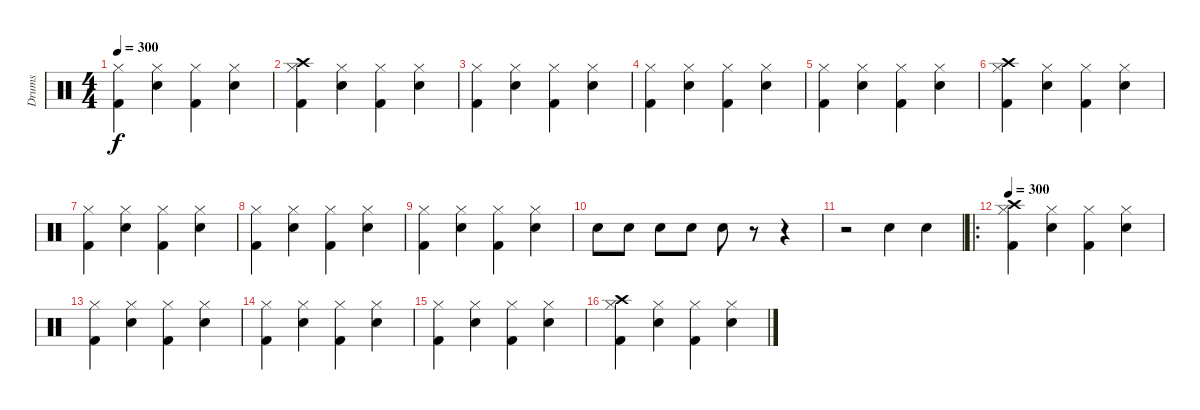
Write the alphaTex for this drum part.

\track ("Drums" "Drums") {instrument percussion}
\staff {score}
\articulation defaults
\ts (4 4)
\tempo 300
\clef neutral
\ks c
("Hi-Hat (closed)" "Kick (hit) 2").4{dy f} ("Hi-Hat (closed)" "Snare (hit) 2").4 ("Hi-Hat (closed)" "Kick (hit) 2").4 ("Hi-Hat (closed)" "Snare (hit) 2").4 |
("Hi-Hat (closed)" "Kick (hit) 2" "Crash high (hit)").4 ("Hi-Hat (closed)" "Snare (hit) 2").4 ("Hi-Hat (closed)" "Kick (hit) 2").4 ("Hi-Hat (closed)" "Snare (hit) 2").4 |
("Hi-Hat (closed)" "Kick (hit) 2").4 ("Hi-Hat (closed)" "Snare (hit) 2").4 ("Hi-Hat (closed)" "Kick (hit) 2").4 ("Hi-Hat (closed)" "Snare (hit) 2").4 |
("Hi-Hat (closed)" "Kick (hit) 2").4 ("Hi-Hat (closed)" "Snare (hit) 2").4 ("Hi-Hat (closed)" "Kick (hit) 2").4 ("Hi-Hat (closed)" "Snare (hit) 2").4 |
("Hi-Hat (closed)" "Kick (hit) 2").4 ("Hi-Hat (closed)" "Snare (hit) 2").4 ("Hi-Hat (closed)" "Kick (hit) 2").4 ("Hi-Hat (closed)" "Snare (hit) 2").4 |
("Hi-Hat (closed)" "Kick (hit) 2" "Crash high (hit)").4 ("Hi-Hat (closed)" "Snare (hit) 2").4 ("Hi-Hat (closed)" "Kick (hit) 2").4 ("Hi-Hat (closed)" "Snare (hit) 2").4 |
("Hi-Hat (closed)" "Kick (hit) 2").4 ("Hi-Hat (closed)" "Snare (hit) 2").4 ("Hi-Hat (closed)" "Kick (hit) 2").4 ("Hi-Hat (closed)" "Snare (hit) 2").4 |
("Hi-Hat (closed)" "Kick (hit) 2").4 ("Hi-Hat (closed)" "Snare (hit) 2").4 ("Hi-Hat (closed)" "Kick (hit) 2").4 ("Hi-Hat (closed)" "Snare (hit) 2").4 |
("Hi-Hat (closed)" "Kick (hit) 2").4 ("Hi-Hat (closed)" "Snare (hit) 2").4 ("Hi-Hat (closed)" "Kick (hit) 2").4 ("Hi-Hat (closed)" "Snare (hit) 2").4 |
"Snare (hit) 2".8 "Snare (hit) 2".8 "Snare (hit) 2".8 "Snare (hit) 2".8 "Snare (hit) 2".8 r.8 r.4 |
r.2 "Snare (hit) 2".4 "Snare (hit) 2".4 |
\ro
\tempo 300
("Hi-Hat (closed)" "Kick (hit) 2" "Crash high (hit)").4 ("Hi-Hat (closed)" "Snare (hit) 2").4 ("Hi-Hat (closed)" "Kick (hit) 2").4 ("Hi-Hat (closed)" "Snare (hit) 2").4 |
("Hi-Hat (closed)" "Kick (hit) 2").4 ("Hi-Hat (closed)" "Snare (hit) 2").4 ("Hi-Hat (closed)" "Kick (hit) 2").4 ("Hi-Hat (closed)" "Snare (hit) 2").4 |
("Hi-Hat (closed)" "Kick (hit) 2").4 ("Hi-Hat (closed)" "Snare (hit) 2").4 ("Hi-Hat (closed)" "Kick (hit) 2").4 ("Hi-Hat (closed)" "Snare (hit) 2").4 |
("Hi-Hat (closed)" "Kick (hit) 2").4 ("Hi-Hat (closed)" "Snare (hit) 2").4 ("Hi-Hat (closed)" "Kick (hit) 2").4 ("Hi-Hat (closed)" "Snare (hit) 2").4 |
("Hi-Hat (closed)" "Kick (hit) 2" "Crash high (hit)").4 ("Hi-Hat (closed)" "Snare (hit) 2").4 ("Hi-Hat (closed)" "Kick (hit) 2").4 ("Hi-Hat (closed)" "Snare (hit) 2").4
